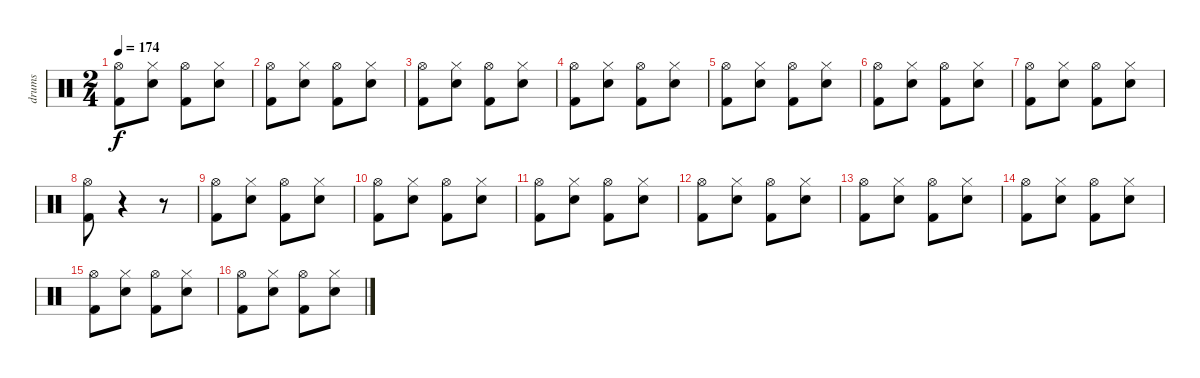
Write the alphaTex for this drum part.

\track ("drums" "drums") {instrument percussion}
\staff {score}
\articulation defaults
\ts (2 4)
\tempo 174
\clef neutral
\ks c
("Hi-Hat (open)" "Kick (hit) 2").8{dy f} ("Snare (hit) 2" "Hi-Hat (closed)").8 ("Kick (hit) 2" "Hi-Hat (open)").8 ("Snare (hit) 2" "Hi-Hat (closed)").8 |
("Kick (hit) 2" "Hi-Hat (open)").8 ("Snare (hit) 2" "Hi-Hat (closed)").8 ("Kick (hit) 2" "Hi-Hat (open)").8 ("Snare (hit) 2" "Hi-Hat (closed)").8 |
("Kick (hit) 2" "Hi-Hat (open)").8 ("Snare (hit) 2" "Hi-Hat (closed)").8 ("Kick (hit) 2" "Hi-Hat (open)").8 ("Snare (hit) 2" "Hi-Hat (closed)").8 |
("Kick (hit) 2" "Hi-Hat (open)").8 ("Snare (hit) 2" "Hi-Hat (closed)").8 ("Kick (hit) 2" "Hi-Hat (open)").8 ("Snare (hit) 2" "Hi-Hat (closed)").8 |
("Hi-Hat (open)" "Kick (hit) 2").8 ("Snare (hit) 2" "Hi-Hat (closed)").8 ("Kick (hit) 2" "Hi-Hat (open)").8 ("Snare (hit) 2" "Hi-Hat (closed)").8 |
("Kick (hit) 2" "Hi-Hat (open)").8 ("Snare (hit) 2" "Hi-Hat (closed)").8 ("Kick (hit) 2" "Hi-Hat (open)").8 ("Snare (hit) 2" "Hi-Hat (closed)").8 |
("Kick (hit) 2" "Hi-Hat (open)").8 ("Snare (hit) 2" "Hi-Hat (closed)").8 ("Kick (hit) 2" "Hi-Hat (open)").8 ("Snare (hit) 2" "Hi-Hat (closed)").8 |
("Kick (hit) 2" "Hi-Hat (open)").8 r.4 r.8 |
("Hi-Hat (open)" "Kick (hit) 2").8 ("Snare (hit) 2" "Hi-Hat (closed)").8 ("Kick (hit) 2" "Hi-Hat (open)").8 ("Snare (hit) 2" "Hi-Hat (closed)").8 |
("Kick (hit) 2" "Hi-Hat (open)").8 ("Snare (hit) 2" "Hi-Hat (closed)").8 ("Kick (hit) 2" "Hi-Hat (open)").8 ("Snare (hit) 2" "Hi-Hat (closed)").8 |
("Kick (hit) 2" "Hi-Hat (open)").8 ("Snare (hit) 2" "Hi-Hat (closed)").8 ("Kick (hit) 2" "Hi-Hat (open)").8 ("Snare (hit) 2" "Hi-Hat (closed)").8 |
("Kick (hit) 2" "Hi-Hat (open)").8 ("Snare (hit) 2" "Hi-Hat (closed)").8 ("Kick (hit) 2" "Hi-Hat (open)").8 ("Snare (hit) 2" "Hi-Hat (closed)").8 |
("Hi-Hat (open)" "Kick (hit) 2").8 ("Snare (hit) 2" "Hi-Hat (closed)").8 ("Kick (hit) 2" "Hi-Hat (open)").8 ("Snare (hit) 2" "Hi-Hat (closed)").8 |
("Kick (hit) 2" "Hi-Hat (open)").8 ("Snare (hit) 2" "Hi-Hat (closed)").8 ("Kick (hit) 2" "Hi-Hat (open)").8 ("Snare (hit) 2" "Hi-Hat (closed)").8 |
("Kick (hit) 2" "Hi-Hat (open)").8 ("Snare (hit) 2" "Hi-Hat (closed)").8 ("Kick (hit) 2" "Hi-Hat (open)").8 ("Snare (hit) 2" "Hi-Hat (closed)").8 |
("Kick (hit) 2" "Hi-Hat (open)").8 ("Snare (hit) 2" "Hi-Hat (closed)").8 ("Kick (hit) 2" "Hi-Hat (open)").8 ("Snare (hit) 2" "Hi-Hat (closed)").8
